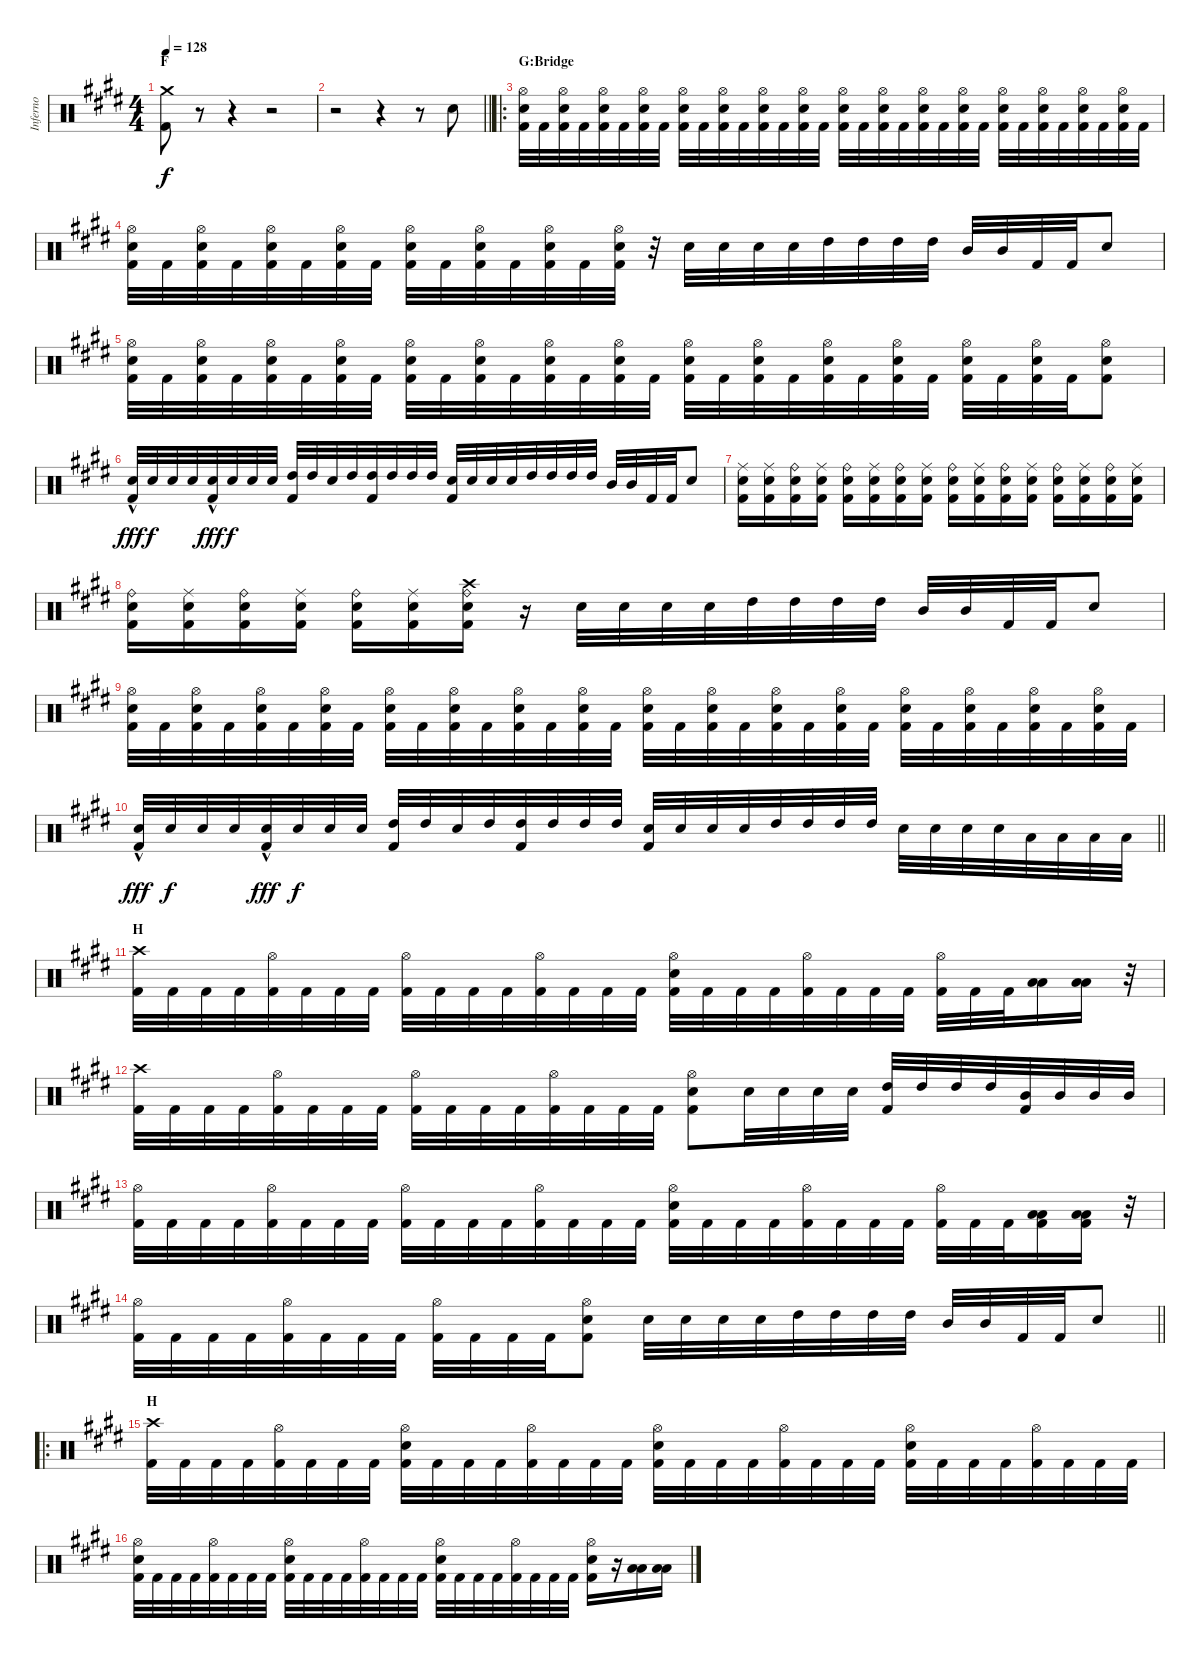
\track ("Inferno" "Inferno") {instrument percussion}
\staff
\articulation defaults
\ts (4 4)
\section ("" "F")
\tempo 128
\clef neutral
\ks c#minor
("Crash medium (hit)" "Kick (hit) 2").8{dy f} r.8 r.4 r.2 |
\barLineRight lightlight
r.2 r.4 r.8 "Snare (hit) 2".8 |
\ro
\section ("" "G:Bridge")
("Hi-Hat (open)" "Snare (hit) 2" "Kick (hit) 2").32 "Kick (hit) 2".32 ("Hi-Hat (open)" "Snare (hit) 2" "Kick (hit) 2").32 "Kick (hit) 2".32 ("Hi-Hat (open)" "Snare (hit) 2" "Kick (hit) 2").32 "Kick (hit) 2".32 ("Hi-Hat (open)" "Snare (hit) 2" "Kick (hit) 2").32 "Kick (hit) 2".32 ("Hi-Hat (open)" "Snare (hit) 2" "Kick (hit) 2").32 "Kick (hit) 2".32 ("Hi-Hat (open)" "Snare (hit) 2" "Kick (hit) 2").32 "Kick (hit) 2".32 ("Hi-Hat (open)" "Snare (hit) 2" "Kick (hit) 2").32 "Kick (hit) 2".32 ("Hi-Hat (open)" "Snare (hit) 2" "Kick (hit) 2").32 "Kick (hit) 2".32 ("Hi-Hat (open)" "Snare (hit) 2" "Kick (hit) 2").32 "Kick (hit) 2".32 ("Hi-Hat (open)" "Snare (hit) 2" "Kick (hit) 2").32 "Kick (hit) 2".32 ("Hi-Hat (open)" "Snare (hit) 2" "Kick (hit) 2").32 "Kick (hit) 2".32 ("Hi-Hat (open)" "Snare (hit) 2" "Kick (hit) 2").32 "Kick (hit) 2".32 ("Hi-Hat (open)" "Snare (hit) 2" "Kick (hit) 2").32 "Kick (hit) 2".32 ("Hi-Hat (open)" "Snare (hit) 2" "Kick (hit) 2").32 "Kick (hit) 2".32 ("Hi-Hat (open)" "Snare (hit) 2" "Kick (hit) 2").32 "Kick (hit) 2".32 ("Hi-Hat (open)" "Snare (hit) 2" "Kick (hit) 2").32 "Kick (hit) 2".32 |
("Hi-Hat (open)" "Snare (hit) 2" "Kick (hit) 2").32 "Kick (hit) 2".32 ("Hi-Hat (open)" "Snare (hit) 2" "Kick (hit) 2").32 "Kick (hit) 2".32 ("Hi-Hat (open)" "Snare (hit) 2" "Kick (hit) 2").32 "Kick (hit) 2".32 ("Hi-Hat (open)" "Snare (hit) 2" "Kick (hit) 2").32 "Kick (hit) 2".32 ("Hi-Hat (open)" "Snare (hit) 2" "Kick (hit) 2").32 "Kick (hit) 2".32 ("Hi-Hat (open)" "Snare (hit) 2" "Kick (hit) 2").32 "Kick (hit) 2".32 ("Hi-Hat (open)" "Snare (hit) 2" "Kick (hit) 2").32 "Kick (hit) 2".32 ("Hi-Hat (open)" "Snare (hit) 2" "Kick (hit) 2").32 r.32 "Snare (hit) 2".32 "Snare (hit) 2".32 "Snare (hit) 2".32 "Snare (hit) 2".32 "High Tom (hit)".32 "High Tom (hit)".32 "High Tom (hit)".32 "High Tom (hit)".32 "Mid Tom (hit)".32 "Mid Tom (hit)".32 "Kick (hit) 2".32 "Kick (hit) 2".32 "Snare (hit) 2".8 |
("Hi-Hat (open)" "Snare (hit) 2" "Kick (hit) 2").32 "Kick (hit) 2".32 ("Hi-Hat (open)" "Snare (hit) 2" "Kick (hit) 2").32 "Kick (hit) 2".32 ("Hi-Hat (open)" "Snare (hit) 2" "Kick (hit) 2").32 "Kick (hit) 2".32 ("Hi-Hat (open)" "Snare (hit) 2" "Kick (hit) 2").32 "Kick (hit) 2".32 ("Hi-Hat (open)" "Snare (hit) 2" "Kick (hit) 2").32 "Kick (hit) 2".32 ("Hi-Hat (open)" "Snare (hit) 2" "Kick (hit) 2").32 "Kick (hit) 2".32 ("Hi-Hat (open)" "Snare (hit) 2" "Kick (hit) 2").32 "Kick (hit) 2".32 ("Hi-Hat (open)" "Snare (hit) 2" "Kick (hit) 2").32 "Kick (hit) 2".32 ("Hi-Hat (open)" "Snare (hit) 2" "Kick (hit) 2").32 "Kick (hit) 2".32 ("Hi-Hat (open)" "Snare (hit) 2" "Kick (hit) 2").32 "Kick (hit) 2".32 ("Hi-Hat (open)" "Snare (hit) 2" "Kick (hit) 2").32 "Kick (hit) 2".32 ("Hi-Hat (open)" "Snare (hit) 2" "Kick (hit) 2").32 "Kick (hit) 2".32 ("Hi-Hat (open)" "Snare (hit) 2" "Kick (hit) 2").32 "Kick (hit) 2".32 ("Hi-Hat (open)" "Snare (hit) 2" "Kick (hit) 2").32 "Kick (hit) 2".32 ("Hi-Hat (open)" "Snare (hit) 2" "Kick (hit) 2").8 |
("Snare (hit) 2"{hac} "Kick (hit) 2").32{dy fff} "Snare (hit) 2".32{dy f} "Snare (hit) 2".32 "Snare (hit) 2".32 ("Snare (hit) 2"{hac} "Kick (hit) 2").32{dy fff} "Snare (hit) 2".32{dy f} "Snare (hit) 2".32 "Snare (hit) 2".32 ("High Tom (hit)" "Kick (hit) 2").32 "High Tom (hit)".32 "Snare (hit) 2".32 "High Tom (hit)".32 ("High Tom (hit)" "Kick (hit) 2").32 "High Tom (hit)".32 "High Tom (hit)".32 "High Tom (hit)".32 ("Snare (hit) 2" "Kick (hit) 2").32 "Snare (hit) 2".32 "Snare (hit) 2".32 "Snare (hit) 2".32 "High Tom (hit)".32 "High Tom (hit)".32 "High Tom (hit)".32 "High Tom (hit)".32 "Mid Tom (hit)".32 "Mid Tom (hit)".32 "Kick (hit) 2".32 "Kick (hit) 2".32 "Snare (hit) 2".8 |
("Ride (middle)" "Snare (hit) 2" "Kick (hit) 2").16 ("Ride (middle)" "Snare (hit) 2" "Kick (hit) 2").16 ("Ride (bell)" "Snare (hit) 2" "Kick (hit) 2").16 ("Ride (middle)" "Snare (hit) 2" "Kick (hit) 2").16 ("Ride (bell)" "Snare (hit) 2" "Kick (hit) 2").16 ("Ride (middle)" "Snare (hit) 2" "Kick (hit) 2").16 ("Ride (bell)" "Snare (hit) 2" "Kick (hit) 2").16 ("Ride (middle)" "Snare (hit) 2" "Kick (hit) 2").16 ("Ride (bell)" "Snare (hit) 2" "Kick (hit) 2").16 ("Ride (middle)" "Snare (hit) 2" "Kick (hit) 2").16 ("Ride (bell)" "Snare (hit) 2" "Kick (hit) 2").16 ("Ride (middle)" "Snare (hit) 2" "Kick (hit) 2").16 ("Ride (bell)" "Snare (hit) 2" "Kick (hit) 2").16 ("Ride (middle)" "Snare (hit) 2" "Kick (hit) 2").16 ("Ride (bell)" "Snare (hit) 2" "Kick (hit) 2").16 ("Ride (middle)" "Snare (hit) 2" "Kick (hit) 2").16 |
("Ride (bell)" "Snare (hit) 2" "Kick (hit) 2").16 ("Ride (middle)" "Snare (hit) 2" "Kick (hit) 2").16 ("Ride (bell)" "Snare (hit) 2" "Kick (hit) 2").16 ("Ride (middle)" "Snare (hit) 2" "Kick (hit) 2").16 ("Ride (bell)" "Snare (hit) 2" "Kick (hit) 2").16 ("Ride (middle)" "Snare (hit) 2" "Kick (hit) 2").16 ("Crash high (hit)" "Ride (bell)" "Snare (hit) 2" "Kick (hit) 2").16 r.16 "Snare (hit) 2".32 "Snare (hit) 2".32 "Snare (hit) 2".32 "Snare (hit) 2".32 "High Tom (hit)".32 "High Tom (hit)".32 "High Tom (hit)".32 "High Tom (hit)".32 "Mid Tom (hit)".32 "Mid Tom (hit)".32 "Kick (hit) 2".32 "Kick (hit) 2".32 "Snare (hit) 2".8 |
("Hi-Hat (open)" "Snare (hit) 2" "Kick (hit) 2").32 "Kick (hit) 2".32 ("Hi-Hat (open)" "Snare (hit) 2" "Kick (hit) 2").32 "Kick (hit) 2".32 ("Hi-Hat (open)" "Snare (hit) 2" "Kick (hit) 2").32 "Kick (hit) 2".32 ("Hi-Hat (open)" "Snare (hit) 2" "Kick (hit) 2").32 "Kick (hit) 2".32 ("Hi-Hat (open)" "Snare (hit) 2" "Kick (hit) 2").32 "Kick (hit) 2".32 ("Hi-Hat (open)" "Snare (hit) 2" "Kick (hit) 2").32 "Kick (hit) 2".32 ("Hi-Hat (open)" "Snare (hit) 2" "Kick (hit) 2").32 "Kick (hit) 2".32 ("Hi-Hat (open)" "Snare (hit) 2" "Kick (hit) 2").32 "Kick (hit) 2".32 ("Hi-Hat (open)" "Snare (hit) 2" "Kick (hit) 2").32 "Kick (hit) 2".32 ("Hi-Hat (open)" "Snare (hit) 2" "Kick (hit) 2").32 "Kick (hit) 2".32 ("Hi-Hat (open)" "Snare (hit) 2" "Kick (hit) 2").32 "Kick (hit) 2".32 ("Hi-Hat (open)" "Snare (hit) 2" "Kick (hit) 2").32 "Kick (hit) 2".32 ("Hi-Hat (open)" "Snare (hit) 2" "Kick (hit) 2").32 "Kick (hit) 2".32 ("Hi-Hat (open)" "Snare (hit) 2" "Kick (hit) 2").32 "Kick (hit) 2".32 ("Hi-Hat (open)" "Snare (hit) 2" "Kick (hit) 2").32 "Kick (hit) 2".32 ("Hi-Hat (open)" "Snare (hit) 2" "Kick (hit) 2").32 "Kick (hit) 2".32 |
\barLineRight lightlight
("Snare (hit) 2"{hac} "Kick (hit) 2").32{dy fff} "Snare (hit) 2".32{dy f} "Snare (hit) 2".32 "Snare (hit) 2".32 ("Snare (hit) 2"{hac} "Kick (hit) 2").32{dy fff} "Snare (hit) 2".32{dy f} "Snare (hit) 2".32 "Snare (hit) 2".32 ("High Tom (hit)" "Kick (hit) 2").32 "High Tom (hit)".32 "Snare (hit) 2".32 "High Tom (hit)".32 ("High Tom (hit)" "Kick (hit) 2").32 "High Tom (hit)".32 "High Tom (hit)".32 "High Tom (hit)".32 ("Snare (hit) 2" "Kick (hit) 2").32 "Snare (hit) 2".32 "Snare (hit) 2".32 "Snare (hit) 2".32 "High Tom (hit)".32 "High Tom (hit)".32 "High Tom (hit)".32 "High Tom (hit)".32 "Snare (hit) 2".32 "Snare (hit) 2".32 "Snare (hit) 2".32 "Snare (hit) 2".32 "Low Tom (hit)".32 "Low Tom (hit)".32 "Low Tom (hit)".32 "Low Tom (hit)".32 |
\section ("" "H")
("Crash high (hit)" "Kick (hit) 2").32 "Kick (hit) 2".32 "Kick (hit) 2".32 "Kick (hit) 2".32 ("Hi-Hat (open)" "Kick (hit) 2").32 "Kick (hit) 2".32 "Kick (hit) 2".32 "Kick (hit) 2".32 ("Hi-Hat (open)" "Kick (hit) 2").32 "Kick (hit) 2".32 "Kick (hit) 2".32 "Kick (hit) 2".32 ("Hi-Hat (open)" "Kick (hit) 2").32 "Kick (hit) 2".32 "Kick (hit) 2".32 "Kick (hit) 2".32 ("Hi-Hat (open)" "Snare (hit) 2" "Kick (hit) 2").32 "Kick (hit) 2".32 "Kick (hit) 2".32 "Kick (hit) 2".32 ("Hi-Hat (open)" "Kick (hit) 2").32 "Kick (hit) 2".32 "Kick (hit) 2".32 "Kick (hit) 2".32 ("Hi-Hat (open)" "Kick (hit) 2").32 "Kick (hit) 2".32 "Kick (hit) 2".32 ("Low Tom (hit)" "Low Floor Tom (hit)").16 ("Low Tom (hit)" "Low Floor Tom (hit)").16 r.32 |
("Crash high (hit)" "Kick (hit) 2").32 "Kick (hit) 2".32 "Kick (hit) 2".32 "Kick (hit) 2".32 ("Hi-Hat (open)" "Kick (hit) 2").32 "Kick (hit) 2".32 "Kick (hit) 2".32 "Kick (hit) 2".32 ("Hi-Hat (open)" "Kick (hit) 2").32 "Kick (hit) 2".32 "Kick (hit) 2".32 "Kick (hit) 2".32 ("Hi-Hat (open)" "Kick (hit) 2").32 "Kick (hit) 2".32 "Kick (hit) 2".32 "Kick (hit) 2".32 ("Hi-Hat (open)" "Snare (hit) 2" "Kick (hit) 2").8 "Snare (hit) 2".32 "Snare (hit) 2".32 "Snare (hit) 2".32 "Snare (hit) 2".32 ("High Tom (hit)" "Kick (hit) 2").32 "High Tom (hit)".32 "High Tom (hit)".32 "High Tom (hit)".32 ("Mid Tom (hit)" "Kick (hit) 2").32 "Mid Tom (hit)".32 "Mid Tom (hit)".32 "Mid Tom (hit)".32 |
("Hi-Hat (open)" "Kick (hit) 2").32 "Kick (hit) 2".32 "Kick (hit) 2".32 "Kick (hit) 2".32 ("Hi-Hat (open)" "Kick (hit) 2").32 "Kick (hit) 2".32 "Kick (hit) 2".32 "Kick (hit) 2".32 ("Hi-Hat (open)" "Kick (hit) 2").32 "Kick (hit) 2".32 "Kick (hit) 2".32 "Kick (hit) 2".32 ("Hi-Hat (open)" "Kick (hit) 2").32 "Kick (hit) 2".32 "Kick (hit) 2".32 "Kick (hit) 2".32 ("Hi-Hat (open)" "Snare (hit) 2" "Kick (hit) 2").32 "Kick (hit) 2".32 "Kick (hit) 2".32 "Kick (hit) 2".32 ("Hi-Hat (open)" "Kick (hit) 2").32 "Kick (hit) 2".32 "Kick (hit) 2".32 "Kick (hit) 2".32 ("Hi-Hat (open)" "Kick (hit) 2").32 "Kick (hit) 2".32 "Kick (hit) 2".32 ("Low Tom (hit)" "Low Floor Tom (hit)" "Kick (hit) 2").16 ("Low Tom (hit)" "Low Floor Tom (hit)" "Kick (hit) 2").16 r.32 |
\barLineRight lightlight
("Hi-Hat (open)" "Kick (hit) 2").32 "Kick (hit) 2".32 "Kick (hit) 2".32 "Kick (hit) 2".32 ("Hi-Hat (open)" "Kick (hit) 2").32 "Kick (hit) 2".32 "Kick (hit) 2".32 "Kick (hit) 2".32 ("Hi-Hat (open)" "Kick (hit) 2").32 "Kick (hit) 2".32 "Kick (hit) 2".32 "Kick (hit) 2".32 ("Hi-Hat (open)" "Snare (hit) 2" "Kick (hit) 2").8 "Snare (hit) 2".32 "Snare (hit) 2".32 "Snare (hit) 2".32 "Snare (hit) 2".32 "High Tom (hit)".32 "High Tom (hit)".32 "High Tom (hit)".32 "High Tom (hit)".32 "Mid Tom (hit)".32 "Mid Tom (hit)".32 "Kick (hit) 2".32 "Kick (hit) 2".32 "Snare (hit) 2".8 |
\ro
\section ("" "H")
("Crash high (hit)" "Kick (hit) 2").32 "Kick (hit) 2".32 "Kick (hit) 2".32 "Kick (hit) 2".32 ("Hi-Hat (open)" "Kick (hit) 2").32 "Kick (hit) 2".32 "Kick (hit) 2".32 "Kick (hit) 2".32 ("Hi-Hat (open)" "Snare (hit) 2" "Kick (hit) 2").32 "Kick (hit) 2".32 "Kick (hit) 2".32 "Kick (hit) 2".32 ("Hi-Hat (open)" "Kick (hit) 2").32 "Kick (hit) 2".32 "Kick (hit) 2".32 "Kick (hit) 2".32 ("Hi-Hat (open)" "Snare (hit) 2" "Kick (hit) 2").32 "Kick (hit) 2".32 "Kick (hit) 2".32 "Kick (hit) 2".32 ("Hi-Hat (open)" "Kick (hit) 2").32 "Kick (hit) 2".32 "Kick (hit) 2".32 "Kick (hit) 2".32 ("Hi-Hat (open)" "Snare (hit) 2" "Kick (hit) 2").32 "Kick (hit) 2".32 "Kick (hit) 2".32 "Kick (hit) 2".32 ("Hi-Hat (open)" "Kick (hit) 2").32 "Kick (hit) 2".32 "Kick (hit) 2".32 "Kick (hit) 2".32 |
("Hi-Hat (open)" "Snare (hit) 2" "Kick (hit) 2").32 "Kick (hit) 2".32 "Kick (hit) 2".32 "Kick (hit) 2".32 ("Hi-Hat (open)" "Kick (hit) 2").32 "Kick (hit) 2".32 "Kick (hit) 2".32 "Kick (hit) 2".32 ("Hi-Hat (open)" "Snare (hit) 2" "Kick (hit) 2").32 "Kick (hit) 2".32 "Kick (hit) 2".32 "Kick (hit) 2".32 ("Hi-Hat (open)" "Kick (hit) 2").32 "Kick (hit) 2".32 "Kick (hit) 2".32 "Kick (hit) 2".32 ("Hi-Hat (open)" "Snare (hit) 2" "Kick (hit) 2").32 "Kick (hit) 2".32 "Kick (hit) 2".32 "Kick (hit) 2".32 ("Hi-Hat (open)" "Kick (hit) 2").32 "Kick (hit) 2".32 "Kick (hit) 2".32 "Kick (hit) 2".32 ("Hi-Hat (open)" "Snare (hit) 2" "Kick (hit) 2").16 r.16 ("Low Tom (hit)" "Low Floor Tom (hit)").16 ("Low Tom (hit)" "Low Floor Tom (hit)").16
